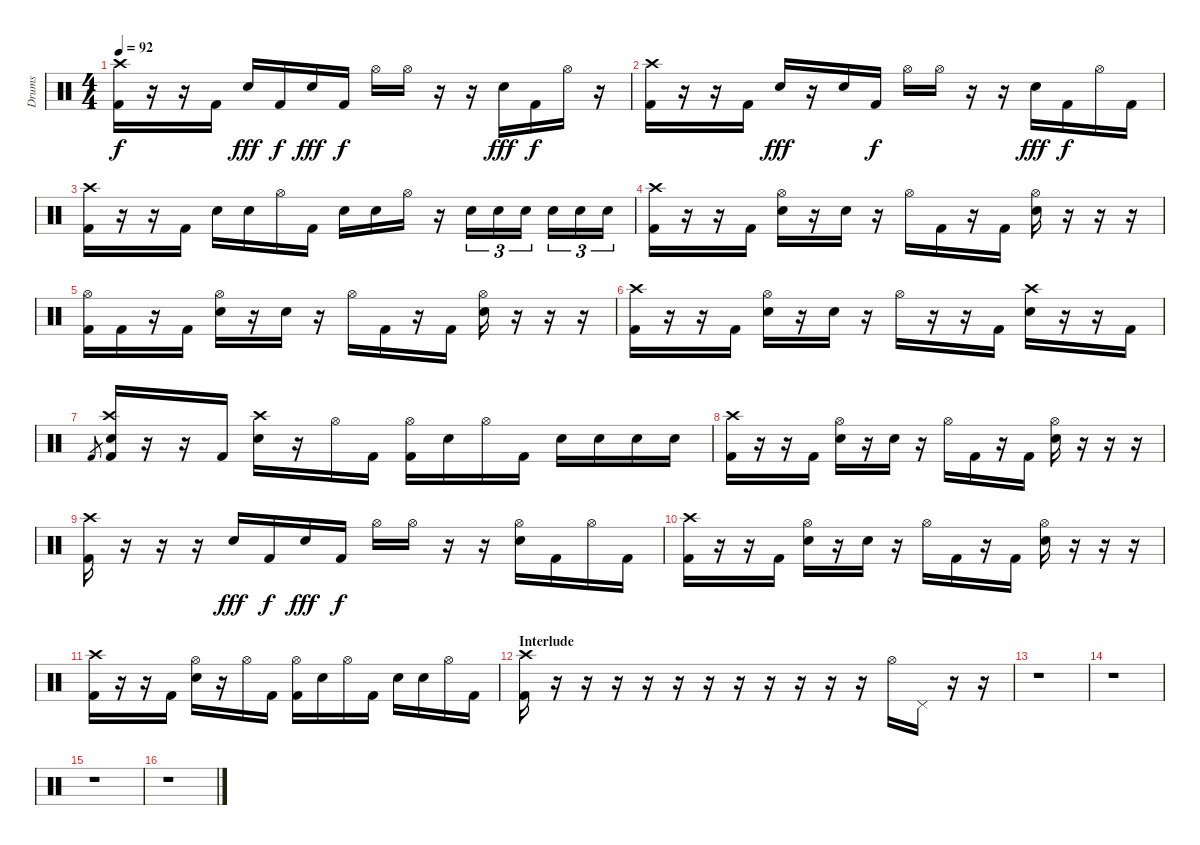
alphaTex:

\track ("Drums" "Drums") {instrument percussion}
\staff {score}
\articulation defaults
\ts (4 4)
\tempo 92
\clef neutral
\ks c
("Kick (hit) 2" "Crash high (hit)").16{dy f} r.16 r.16 "Kick (hit) 2".16 "Electric Snare (hit)".16{dy fff} "Kick (hit) 2".16{dy f} "Electric Snare (hit)".16{dy fff} "Kick (hit) 2".16{dy f} "Hi-Hat (open)".16 "Hi-Hat (open)".16 r.16 r.16 "Electric Snare (hit)".16{dy fff} "Kick (hit) 2".16{dy f} "Hi-Hat (open)".16 r.16 |
("Kick (hit) 2" "Crash high (hit)").16 r.16 r.16 "Kick (hit) 2".16 "Electric Snare (hit)".16{dy fff} r.16 "Electric Snare (hit)".16 "Kick (hit) 2".16{dy f} "Hi-Hat (open)".16 "Hi-Hat (open)".16 r.16 r.16 "Electric Snare (hit)".16{dy fff} "Kick (hit) 2".16{dy f} "Hi-Hat (open)".16 "Kick (hit) 2".16 |
("Kick (hit) 2" "Crash high (hit)").16 r.16 r.16 "Kick (hit) 2".16 "Electric Snare (hit)".16 "Electric Snare (hit)".16 "Hi-Hat (open)".16 "Kick (hit) 2".16 "Electric Snare (hit)".16 "Electric Snare (hit)".16 "Hi-Hat (open)".16 r.16 "Electric Snare (hit)".16{tu (3 2)} "Electric Snare (hit)".16{tu (3 2)} "Electric Snare (hit)".16{tu (3 2)} "Electric Snare (hit)".16{tu (3 2)} "Electric Snare (hit)".16{tu (3 2)} "Electric Snare (hit)".16{tu (3 2)} |
("Kick (hit) 2" "Crash high (hit)").16 r.16 r.16 "Kick (hit) 2".16 ("Hi-Hat (open)" "Electric Snare (hit)").16 r.16 "Electric Snare (hit)".16 r.16 "Hi-Hat (open)".16 "Kick (hit) 2".16 r.16 "Kick (hit) 2".16 ("Hi-Hat (open)" "Electric Snare (hit)").16 r.16 r.16 r.16 |
("Kick (hit) 2" "Hi-Hat (open)").16 "Kick (hit) 2".16 r.16 "Kick (hit) 2".16 ("Hi-Hat (open)" "Electric Snare (hit)").16 r.16 "Electric Snare (hit)".16 r.16 "Hi-Hat (open)".16 "Kick (hit) 2".16 r.16 "Kick (hit) 2".16 ("Hi-Hat (open)" "Electric Snare (hit)").16 r.16 r.16 r.16 |
("Kick (hit) 2" "Crash high (hit)").16 r.16 r.16 "Kick (hit) 2".16 ("Hi-Hat (open)" "Electric Snare (hit)").16 r.16 "Electric Snare (hit)".16 r.16 "Hi-Hat (open)".16 r.16 r.16 "Kick (hit) 2".16 ("Crash high (hit)" "Electric Snare (hit)").16 r.16 r.16 "Kick (hit) 2".16 |
"Kick (hit) 2".8{gr} ("Kick (hit) 2" "Crash high (hit)" "Electric Snare (hit)").16 r.16 r.16 "Kick (hit) 2".16 ("Crash high (hit)" "Electric Snare (hit)").16 r.16 "Hi-Hat (open)".16 "Kick (hit) 2".16 ("Kick (hit) 2" "Hi-Hat (open)").16 "Electric Snare (hit)".16 "Hi-Hat (open)".16 "Kick (hit) 2".16 "Electric Snare (hit)".16 "Electric Snare (hit)".16 "Electric Snare (hit)".16 "Electric Snare (hit)".16 |
("Kick (hit) 2" "Crash high (hit)").16 r.16 r.16 "Kick (hit) 2".16 ("Hi-Hat (open)" "Electric Snare (hit)").16 r.16 "Electric Snare (hit)".16 r.16 "Hi-Hat (open)".16 "Kick (hit) 2".16 r.16 "Kick (hit) 2".16 ("Hi-Hat (open)" "Electric Snare (hit)").16 r.16 r.16 r.16 |
("Kick (hit) 2" "Crash high (hit)").16 r.16 r.16 r.16 "Electric Snare (hit)".16{dy fff} "Kick (hit) 2".16{dy f} "Electric Snare (hit)".16{dy fff} "Kick (hit) 2".16{dy f} "Hi-Hat (open)".16 "Hi-Hat (open)".16 r.16 r.16 ("Hi-Hat (open)" "Electric Snare (hit)").16 "Kick (hit) 2".16 "Hi-Hat (open)".16 "Kick (hit) 2".16 |
("Kick (hit) 2" "Crash high (hit)").16 r.16 r.16 "Kick (hit) 2".16 ("Hi-Hat (open)" "Electric Snare (hit)").16 r.16 "Electric Snare (hit)".16 r.16 "Hi-Hat (open)".16 "Kick (hit) 2".16 r.16 "Kick (hit) 2".16 ("Hi-Hat (open)" "Electric Snare (hit)").16 r.16 r.16 r.16 |
("Kick (hit) 2" "Crash high (hit)").16 r.16 r.16 "Kick (hit) 2".16 ("Hi-Hat (open)" "Electric Snare (hit)").16 r.16 "Hi-Hat (open)".16 "Kick (hit) 2".16 ("Kick (hit) 2" "Hi-Hat (open)").16 "Electric Snare (hit)".16 "Hi-Hat (open)".16 "Kick (hit) 2".16 "Electric Snare (hit)".16 "Electric Snare (hit)".16 "Hi-Hat (open)".16 "Kick (hit) 2".16 |
\section ("" "Interlude")
("Kick (hit) 2" "Crash high (hit)").16 r.16 r.16 r.16 r.16 r.16 r.16 r.16 r.16 r.16 r.16 r.16 "Hi-Hat (open)".16 "Pedal Hi-Hat (hit)".16 r.16 r.16 |
r.1 |
r.1 |
r.1 |
r.1
